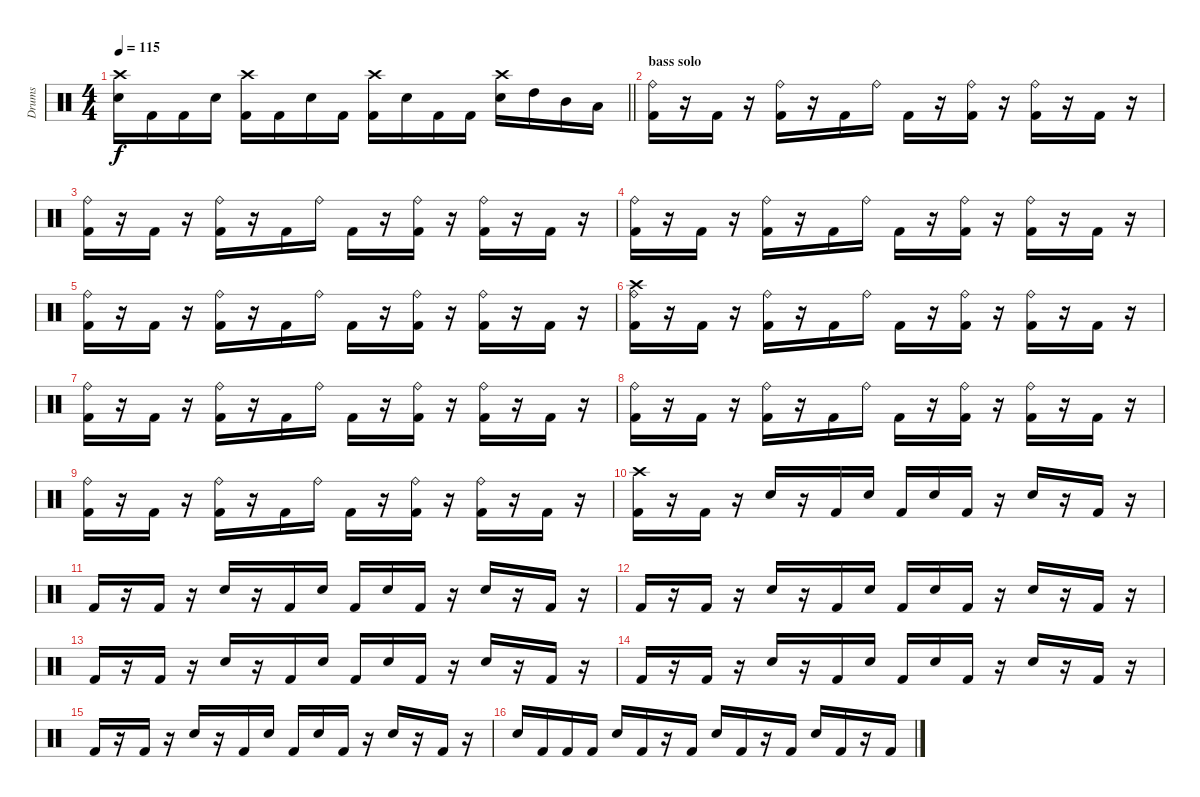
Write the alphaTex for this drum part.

\track ("Drums" "Drums") {instrument percussion}
\staff {score}
\articulation defaults
\ts (4 4)
\tempo 115
\clef neutral
\barLineRight lightlight
\ks c
("Crash high (hit)" "Snare (hit) 2").16{dy f} "Kick (hit) 2".16 "Kick (hit) 2".16 "Snare (hit) 2".16 ("Crash high (hit)" "Kick (hit) 2").16 "Kick (hit) 2".16 "Snare (hit) 2".16 "Kick (hit) 2".16 ("Crash high (hit)" "Kick (hit) 2").16 "Snare (hit) 2".16 "Kick (hit) 2".16 "Kick (hit) 2".16 ("Crash high (hit)" "Snare (hit) 2").16 "High Tom (hit)".16 "Mid Tom (hit)".16 "Low Tom (hit)".16 |
\section ("" "bass solo")
("Ride (bell)" "Kick (hit) 2").16 r.16 "Kick (hit) 2".16 r.16 ("Ride (bell)" "Kick (hit) 2").16 r.16 "Kick (hit) 2".16 "Ride (bell)".16 "Kick (hit) 2".16 r.16 ("Ride (bell)" "Kick (hit) 2").16 r.16 ("Ride (bell)" "Kick (hit) 2").16 r.16 "Kick (hit) 2".16 r.16 |
("Ride (bell)" "Kick (hit) 2").16 r.16 "Kick (hit) 2".16 r.16 ("Ride (bell)" "Kick (hit) 2").16 r.16 "Kick (hit) 2".16 "Ride (bell)".16 "Kick (hit) 2".16 r.16 ("Ride (bell)" "Kick (hit) 2").16 r.16 ("Ride (bell)" "Kick (hit) 2").16 r.16 "Kick (hit) 2".16 r.16 |
("Ride (bell)" "Kick (hit) 2").16 r.16 "Kick (hit) 2".16 r.16 ("Ride (bell)" "Kick (hit) 2").16 r.16 "Kick (hit) 2".16 "Ride (bell)".16 "Kick (hit) 2".16 r.16 ("Ride (bell)" "Kick (hit) 2").16 r.16 ("Ride (bell)" "Kick (hit) 2").16 r.16 "Kick (hit) 2".16 r.16 |
("Ride (bell)" "Kick (hit) 2").16 r.16 "Kick (hit) 2".16 r.16 ("Ride (bell)" "Kick (hit) 2").16 r.16 "Kick (hit) 2".16 "Ride (bell)".16 "Kick (hit) 2".16 r.16 ("Ride (bell)" "Kick (hit) 2").16 r.16 ("Ride (bell)" "Kick (hit) 2").16 r.16 "Kick (hit) 2".16 r.16 |
("Crash high (hit)" "Ride (bell)" "Kick (hit) 2").16 r.16 "Kick (hit) 2".16 r.16 ("Ride (bell)" "Kick (hit) 2").16 r.16 "Kick (hit) 2".16 "Ride (bell)".16 "Kick (hit) 2".16 r.16 ("Ride (bell)" "Kick (hit) 2").16 r.16 ("Ride (bell)" "Kick (hit) 2").16 r.16 "Kick (hit) 2".16 r.16 |
("Ride (bell)" "Kick (hit) 2").16 r.16 "Kick (hit) 2".16 r.16 ("Ride (bell)" "Kick (hit) 2").16 r.16 "Kick (hit) 2".16 "Ride (bell)".16 "Kick (hit) 2".16 r.16 ("Ride (bell)" "Kick (hit) 2").16 r.16 ("Ride (bell)" "Kick (hit) 2").16 r.16 "Kick (hit) 2".16 r.16 |
("Ride (bell)" "Kick (hit) 2").16 r.16 "Kick (hit) 2".16 r.16 ("Ride (bell)" "Kick (hit) 2").16 r.16 "Kick (hit) 2".16 "Ride (bell)".16 "Kick (hit) 2".16 r.16 ("Ride (bell)" "Kick (hit) 2").16 r.16 ("Ride (bell)" "Kick (hit) 2").16 r.16 "Kick (hit) 2".16 r.16 |
("Ride (bell)" "Kick (hit) 2").16 r.16 "Kick (hit) 2".16 r.16 ("Ride (bell)" "Kick (hit) 2").16 r.16 "Kick (hit) 2".16 "Ride (bell)".16 "Kick (hit) 2".16 r.16 ("Ride (bell)" "Kick (hit) 2").16 r.16 ("Ride (bell)" "Kick (hit) 2").16 r.16 "Kick (hit) 2".16 r.16 |
("Crash high (hit)" "Kick (hit) 2").16 r.16 "Kick (hit) 2".16 r.16 "Snare (hit) 2".16 r.16 "Kick (hit) 2".16 "Snare (hit) 2".16 "Kick (hit) 2".16 "Snare (hit) 2".16 "Kick (hit) 2".16 r.16 "Snare (hit) 2".16 r.16 "Kick (hit) 2".16 r.16 |
"Kick (hit) 2".16 r.16 "Kick (hit) 2".16 r.16 "Snare (hit) 2".16 r.16 "Kick (hit) 2".16 "Snare (hit) 2".16 "Kick (hit) 2".16 "Snare (hit) 2".16 "Kick (hit) 2".16 r.16 "Snare (hit) 2".16 r.16 "Kick (hit) 2".16 r.16 |
"Kick (hit) 2".16 r.16 "Kick (hit) 2".16 r.16 "Snare (hit) 2".16 r.16 "Kick (hit) 2".16 "Snare (hit) 2".16 "Kick (hit) 2".16 "Snare (hit) 2".16 "Kick (hit) 2".16 r.16 "Snare (hit) 2".16 r.16 "Kick (hit) 2".16 r.16 |
"Kick (hit) 2".16 r.16 "Kick (hit) 2".16 r.16 "Snare (hit) 2".16 r.16 "Kick (hit) 2".16 "Snare (hit) 2".16 "Kick (hit) 2".16 "Snare (hit) 2".16 "Kick (hit) 2".16 r.16 "Snare (hit) 2".16 r.16 "Kick (hit) 2".16 r.16 |
"Kick (hit) 2".16 r.16 "Kick (hit) 2".16 r.16 "Snare (hit) 2".16 r.16 "Kick (hit) 2".16 "Snare (hit) 2".16 "Kick (hit) 2".16 "Snare (hit) 2".16 "Kick (hit) 2".16 r.16 "Snare (hit) 2".16 r.16 "Kick (hit) 2".16 r.16 |
"Kick (hit) 2".16 r.16 "Kick (hit) 2".16 r.16 "Snare (hit) 2".16 r.16 "Kick (hit) 2".16 "Snare (hit) 2".16 "Kick (hit) 2".16 "Snare (hit) 2".16 "Kick (hit) 2".16 r.16 "Snare (hit) 2".16 r.16 "Kick (hit) 2".16 r.16 |
"Snare (hit) 2".16 "Kick (hit) 2".16 "Kick (hit) 2".16 "Kick (hit) 2".16 "Snare (hit) 2".16 "Kick (hit) 2".16 r.16 "Kick (hit) 2".16 "Snare (hit) 2".16 "Kick (hit) 2".16 r.16 "Kick (hit) 2".16 "Snare (hit) 2".16 "Kick (hit) 2".16 r.16 "Kick (hit) 2".16
